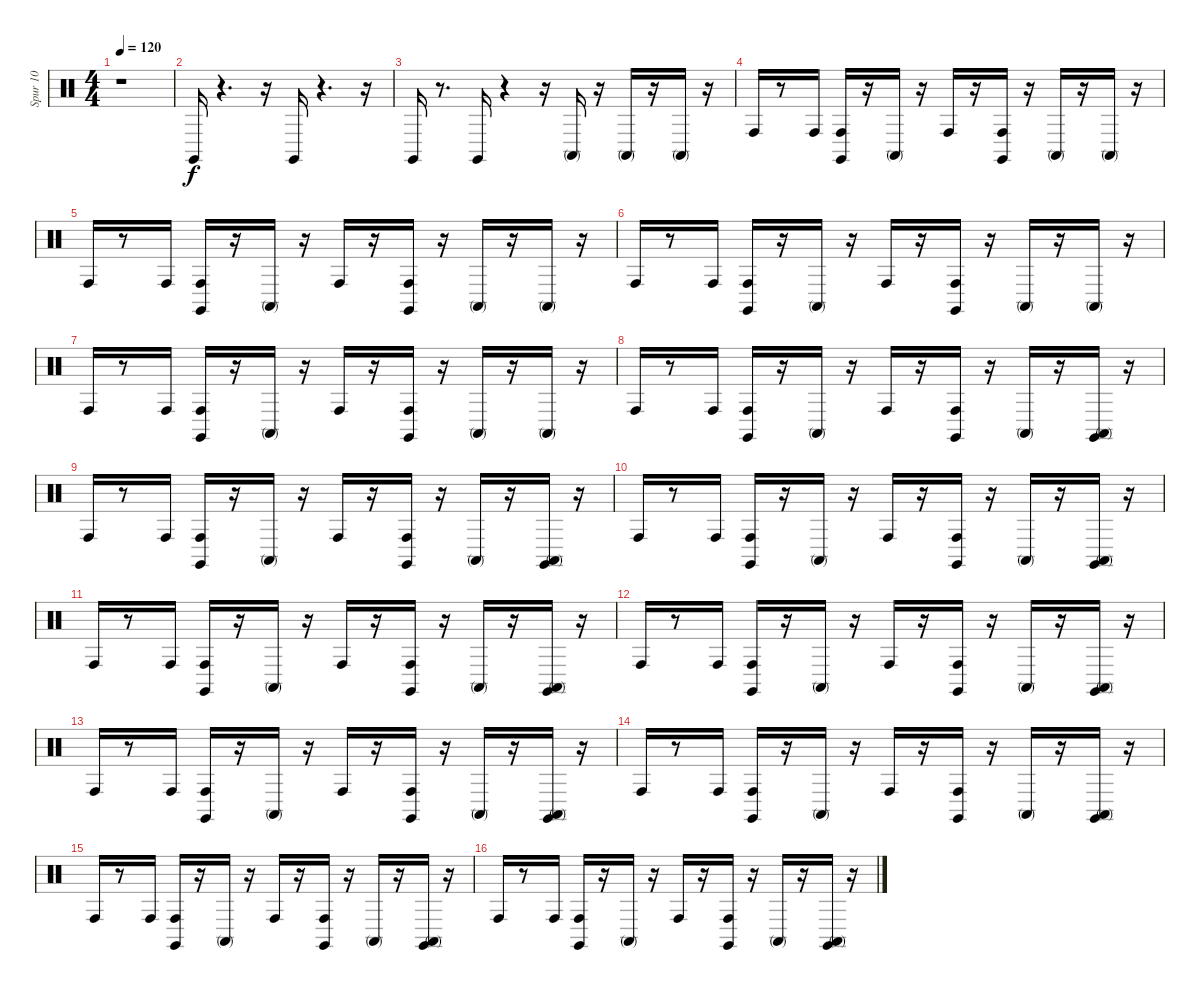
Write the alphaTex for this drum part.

\track ("Spur 10" "Spur 10") {instrument percussion}
\staff {score}
\articulation defaults
\ts (4 4)
\tempo 120
\clef neutral
\ks c
r.1{dy f} |
"Claves (hit)".16 r.4{d} r.16 "Claves (hit)".16 r.4{d} r.16 |
"Claves (hit)".16 r.8{d} "Claves (hit)".16 r.4 r.16 "Conga high (mute)".16 r.16 "Conga high (mute)".16 r.16 "Conga high (mute)".16 r.16 |
"Conga high (hit)".16 r.8 "Conga high (hit)".16 ("Claves (hit)" "Conga high (hit)").16 r.16 "Conga high (mute)".16 r.16 "Conga high (hit)".16 r.16 ("Claves (hit)" "Conga high (hit)").16 r.16 "Conga high (mute)".16 r.16 "Conga high (mute)".16 r.16 |
"Conga high (hit)".16 r.8 "Conga high (hit)".16 ("Conga high (hit)" "Claves (hit)").16 r.16 "Conga high (mute)".16 r.16 "Conga high (hit)".16 r.16 ("Conga high (hit)" "Claves (hit)").16 r.16 "Conga high (mute)".16 r.16 "Conga high (mute)".16 r.16 |
"Conga high (hit)".16 r.8 "Conga high (hit)".16 ("Conga high (hit)" "Claves (hit)").16 r.16 "Conga high (mute)".16 r.16 "Conga high (hit)".16 r.16 ("Conga high (hit)" "Claves (hit)").16 r.16 "Conga high (mute)".16 r.16 "Conga high (mute)".16 r.16 |
"Conga high (hit)".16 r.8 "Conga high (hit)".16 ("Conga high (hit)" "Claves (hit)").16 r.16 "Conga high (mute)".16 r.16 "Conga high (hit)".16 r.16 ("Conga high (hit)" "Claves (hit)").16 r.16 "Conga high (mute)".16 r.16 "Conga high (mute)".16 r.16 |
"Conga high (hit)".16 r.8 "Conga high (hit)".16 ("Claves (hit)" "Conga high (hit)").16 r.16 "Conga high (mute)".16 r.16 "Conga high (hit)".16 r.16 ("Claves (hit)" "Conga high (hit)").16 r.16 "Conga high (mute)".16 r.16 ("Conga high (mute)" "Claves (hit)").16 r.16 |
"Conga high (hit)".16 r.8 "Conga high (hit)".16 ("Conga high (hit)" "Claves (hit)").16 r.16 "Conga high (mute)".16 r.16 "Conga high (hit)".16 r.16 ("Conga high (hit)" "Claves (hit)").16 r.16 "Conga high (mute)".16 r.16 ("Conga high (mute)" "Claves (hit)").16 r.16 |
"Conga high (hit)".16 r.8 "Conga high (hit)".16 ("Conga high (hit)" "Claves (hit)").16 r.16 "Conga high (mute)".16 r.16 "Conga high (hit)".16 r.16 ("Conga high (hit)" "Claves (hit)").16 r.16 "Conga high (mute)".16 r.16 ("Conga high (mute)" "Claves (hit)").16 r.16 |
"Conga high (hit)".16 r.8 "Conga high (hit)".16 ("Conga high (hit)" "Claves (hit)").16 r.16 "Conga high (mute)".16 r.16 "Conga high (hit)".16 r.16 ("Conga high (hit)" "Claves (hit)").16 r.16 "Conga high (mute)".16 r.16 ("Conga high (mute)" "Claves (hit)").16 r.16 |
"Conga high (hit)".16 r.8 "Conga high (hit)".16 ("Claves (hit)" "Conga high (hit)").16 r.16 "Conga high (mute)".16 r.16 "Conga high (hit)".16 r.16 ("Claves (hit)" "Conga high (hit)").16 r.16 "Conga high (mute)".16 r.16 ("Conga high (mute)" "Claves (hit)").16 r.16 |
"Conga high (hit)".16 r.8 "Conga high (hit)".16 ("Conga high (hit)" "Claves (hit)").16 r.16 "Conga high (mute)".16 r.16 "Conga high (hit)".16 r.16 ("Conga high (hit)" "Claves (hit)").16 r.16 "Conga high (mute)".16 r.16 ("Conga high (mute)" "Claves (hit)").16 r.16 |
"Conga high (hit)".16 r.8 "Conga high (hit)".16 ("Conga high (hit)" "Claves (hit)").16 r.16 "Conga high (mute)".16 r.16 "Conga high (hit)".16 r.16 ("Conga high (hit)" "Claves (hit)").16 r.16 "Conga high (mute)".16 r.16 ("Conga high (mute)" "Claves (hit)").16 r.16 |
"Conga high (hit)".16 r.8 "Conga high (hit)".16 ("Conga high (hit)" "Claves (hit)").16 r.16 "Conga high (mute)".16 r.16 "Conga high (hit)".16 r.16 ("Conga high (hit)" "Claves (hit)").16 r.16 "Conga high (mute)".16 r.16 ("Conga high (mute)" "Claves (hit)").16 r.16 |
"Conga high (hit)".16 r.8 "Conga high (hit)".16 ("Claves (hit)" "Conga high (hit)").16 r.16 "Conga high (mute)".16 r.16 "Conga high (hit)".16 r.16 ("Claves (hit)" "Conga high (hit)").16 r.16 "Conga high (mute)".16 r.16 ("Conga high (mute)" "Claves (hit)").16 r.16
